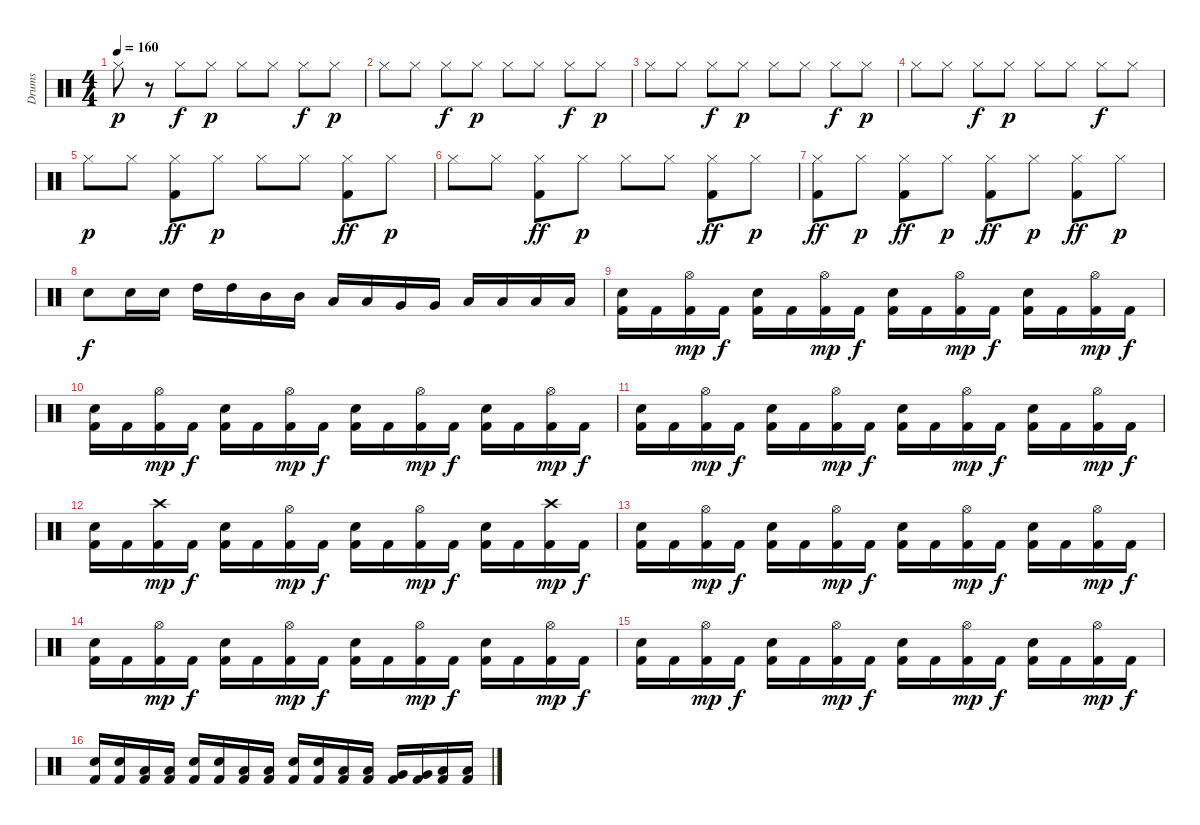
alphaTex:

\track ("Drums" "Drums") {instrument percussion}
\staff {score}
\articulation defaults
\ts (4 4)
\tempo 160
\clef neutral
\ks c "Hi-Hat (closed)".8{dy p}
r.8 "Hi-Hat (closed)".8{dy f} "Hi-Hat (closed)".8{dy p} "Hi-Hat (closed)".8 "Hi-Hat (closed)".8 "Hi-Hat (closed)".8{dy f} "Hi-Hat (closed)".8{dy p} |
"Hi-Hat (closed)".8 "Hi-Hat (closed)".8 "Hi-Hat (closed)".8{dy f} "Hi-Hat (closed)".8{dy p} "Hi-Hat (closed)".8 "Hi-Hat (closed)".8 "Hi-Hat (closed)".8{dy f} "Hi-Hat (closed)".8{dy p} |
"Hi-Hat (closed)".8 "Hi-Hat (closed)".8 "Hi-Hat (closed)".8{dy f} "Hi-Hat (closed)".8{dy p} "Hi-Hat (closed)".8 "Hi-Hat (closed)".8 "Hi-Hat (closed)".8{dy f} "Hi-Hat (closed)".8{dy p} |
"Hi-Hat (closed)".8 "Hi-Hat (closed)".8 "Hi-Hat (closed)".8{dy f} "Hi-Hat (closed)".8{dy p} "Hi-Hat (closed)".8 "Hi-Hat (closed)".8 "Hi-Hat (closed)".8{dy f} "Hi-Hat (closed)".8 |
"Hi-Hat (closed)".8{dy p} "Hi-Hat (closed)".8 ("Hi-Hat (closed)" "Kick (hit) 2").8{dy ff} "Hi-Hat (closed)".8{dy p} "Hi-Hat (closed)".8 "Hi-Hat (closed)".8 ("Hi-Hat (closed)" "Kick (hit) 2").8{dy ff} "Hi-Hat (closed)".8{dy p} |
"Hi-Hat (closed)".8 "Hi-Hat (closed)".8 ("Hi-Hat (closed)" "Kick (hit) 2").8{dy ff} "Hi-Hat (closed)".8{dy p} "Hi-Hat (closed)".8 "Hi-Hat (closed)".8 ("Hi-Hat (closed)" "Kick (hit) 2").8{dy ff} "Hi-Hat (closed)".8{dy p} |
("Hi-Hat (closed)" "Kick (hit) 2").8{dy ff} "Hi-Hat (closed)".8{dy p} ("Hi-Hat (closed)" "Kick (hit) 2").8{dy ff} "Hi-Hat (closed)".8{dy p} ("Hi-Hat (closed)" "Kick (hit) 2").8{dy ff} "Hi-Hat (closed)".8{dy p} ("Hi-Hat (closed)" "Kick (hit) 2").8{dy ff} "Hi-Hat (closed)".8{dy p} |
"Electric Snare (hit)".8{dy f} "Electric Snare (hit)".16 "Electric Snare (hit)".16 "High Tom (hit)".16 "High Tom (hit)".16 "Mid Tom (hit)".16 "Mid Tom (hit)".16 "Low Tom (hit)".16 "Low Tom (hit)".16 "Very Low Tom (hit)".16 "Very Low Tom (hit)".16 "Low Floor Tom (hit)".16 "Low Floor Tom (hit)".16 "Low Floor Tom (hit)".16 "Low Floor Tom (hit)".16 |
("Electric Snare (hit)" "Kick (hit) 2").16 "Kick (hit) 2".16 ("Hi-Hat (open)" "Kick (hit) 2").16{dy mp} "Kick (hit) 2".16{dy f} ("Electric Snare (hit)" "Kick (hit) 2").16 "Kick (hit) 2".16 ("Hi-Hat (open)" "Kick (hit) 2").16{dy mp} "Kick (hit) 2".16{dy f} ("Electric Snare (hit)" "Kick (hit) 2").16 "Kick (hit) 2".16 ("Hi-Hat (open)" "Kick (hit) 2").16{dy mp} "Kick (hit) 2".16{dy f} ("Electric Snare (hit)" "Kick (hit) 2").16 "Kick (hit) 2".16 ("Hi-Hat (open)" "Kick (hit) 2").16{dy mp} "Kick (hit) 2".16{dy f} |
("Electric Snare (hit)" "Kick (hit) 2").16 "Kick (hit) 2".16 ("Hi-Hat (open)" "Kick (hit) 2").16{dy mp} "Kick (hit) 2".16{dy f} ("Electric Snare (hit)" "Kick (hit) 2").16 "Kick (hit) 2".16 ("Hi-Hat (open)" "Kick (hit) 2").16{dy mp} "Kick (hit) 2".16{dy f} ("Electric Snare (hit)" "Kick (hit) 2").16 "Kick (hit) 2".16 ("Hi-Hat (open)" "Kick (hit) 2").16{dy mp} "Kick (hit) 2".16{dy f} ("Electric Snare (hit)" "Kick (hit) 2").16 "Kick (hit) 2".16 ("Hi-Hat (open)" "Kick (hit) 2").16{dy mp} "Kick (hit) 2".16{dy f} |
("Electric Snare (hit)" "Kick (hit) 2").16 "Kick (hit) 2".16 ("Hi-Hat (open)" "Kick (hit) 2").16{dy mp} "Kick (hit) 2".16{dy f} ("Electric Snare (hit)" "Kick (hit) 2").16 "Kick (hit) 2".16 ("Hi-Hat (open)" "Kick (hit) 2").16{dy mp} "Kick (hit) 2".16{dy f} ("Electric Snare (hit)" "Kick (hit) 2").16 "Kick (hit) 2".16 ("Hi-Hat (open)" "Kick (hit) 2").16{dy mp} "Kick (hit) 2".16{dy f} ("Electric Snare (hit)" "Kick (hit) 2").16 "Kick (hit) 2".16 ("Hi-Hat (open)" "Kick (hit) 2").16{dy mp} "Kick (hit) 2".16{dy f} |
("Electric Snare (hit)" "Kick (hit) 2").16 "Kick (hit) 2".16 ("Crash high (hit)" "Kick (hit) 2").16{dy mp} "Kick (hit) 2".16{dy f} ("Electric Snare (hit)" "Kick (hit) 2").16 "Kick (hit) 2".16 ("Hi-Hat (open)" "Kick (hit) 2").16{dy mp} "Kick (hit) 2".16{dy f} ("Electric Snare (hit)" "Kick (hit) 2").16 "Kick (hit) 2".16 ("Hi-Hat (open)" "Kick (hit) 2").16{dy mp} "Kick (hit) 2".16{dy f} ("Electric Snare (hit)" "Kick (hit) 2").16 "Kick (hit) 2".16 ("Crash high (hit)" "Kick (hit) 2").16{dy mp} "Kick (hit) 2".16{dy f} |
("Electric Snare (hit)" "Kick (hit) 2").16 "Kick (hit) 2".16 ("Hi-Hat (open)" "Kick (hit) 2").16{dy mp} "Kick (hit) 2".16{dy f} ("Electric Snare (hit)" "Kick (hit) 2").16 "Kick (hit) 2".16 ("Hi-Hat (open)" "Kick (hit) 2").16{dy mp} "Kick (hit) 2".16{dy f} ("Electric Snare (hit)" "Kick (hit) 2").16 "Kick (hit) 2".16 ("Hi-Hat (open)" "Kick (hit) 2").16{dy mp} "Kick (hit) 2".16{dy f} ("Electric Snare (hit)" "Kick (hit) 2").16 "Kick (hit) 2".16 ("Hi-Hat (open)" "Kick (hit) 2").16{dy mp} "Kick (hit) 2".16{dy f} |
("Electric Snare (hit)" "Kick (hit) 2").16 "Kick (hit) 2".16 ("Hi-Hat (open)" "Kick (hit) 2").16{dy mp} "Kick (hit) 2".16{dy f} ("Electric Snare (hit)" "Kick (hit) 2").16 "Kick (hit) 2".16 ("Hi-Hat (open)" "Kick (hit) 2").16{dy mp} "Kick (hit) 2".16{dy f} ("Electric Snare (hit)" "Kick (hit) 2").16 "Kick (hit) 2".16 ("Hi-Hat (open)" "Kick (hit) 2").16{dy mp} "Kick (hit) 2".16{dy f} ("Electric Snare (hit)" "Kick (hit) 2").16 "Kick (hit) 2".16 ("Hi-Hat (open)" "Kick (hit) 2").16{dy mp} "Kick (hit) 2".16{dy f} |
("Electric Snare (hit)" "Kick (hit) 2").16 "Kick (hit) 2".16 ("Hi-Hat (open)" "Kick (hit) 2").16{dy mp} "Kick (hit) 2".16{dy f} ("Electric Snare (hit)" "Kick (hit) 2").16 "Kick (hit) 2".16 ("Hi-Hat (open)" "Kick (hit) 2").16{dy mp} "Kick (hit) 2".16{dy f} ("Electric Snare (hit)" "Kick (hit) 2").16 "Kick (hit) 2".16 ("Hi-Hat (open)" "Kick (hit) 2").16{dy mp} "Kick (hit) 2".16{dy f} ("Electric Snare (hit)" "Kick (hit) 2").16 "Kick (hit) 2".16 ("Hi-Hat (open)" "Kick (hit) 2").16{dy mp} "Kick (hit) 2".16{dy f} |
("Electric Snare (hit)" "Kick (hit) 2").16 ("Electric Snare (hit)" "Kick (hit) 2").16 ("Low Floor Tom (hit)" "Kick (hit) 2").16 ("Low Floor Tom (hit)" "Kick (hit) 2").16 ("Electric Snare (hit)" "Kick (hit) 2").16 ("Electric Snare (hit)" "Kick (hit) 2").16 ("Low Floor Tom (hit)" "Kick (hit) 2").16 ("Low Floor Tom (hit)" "Kick (hit) 2").16 ("Electric Snare (hit)" "Kick (hit) 2").16 ("Electric Snare (hit)" "Kick (hit) 2").16 ("Low Tom (hit)" "Kick (hit) 2").16 ("Low Tom (hit)" "Kick (hit) 2").16 ("Very Low Tom (hit)" "Kick (hit) 2").16 ("Very Low Tom (hit)" "Kick (hit) 2").16 ("Low Floor Tom (hit)" "Kick (hit) 2").16 ("Low Floor Tom (hit)" "Kick (hit) 2").16
